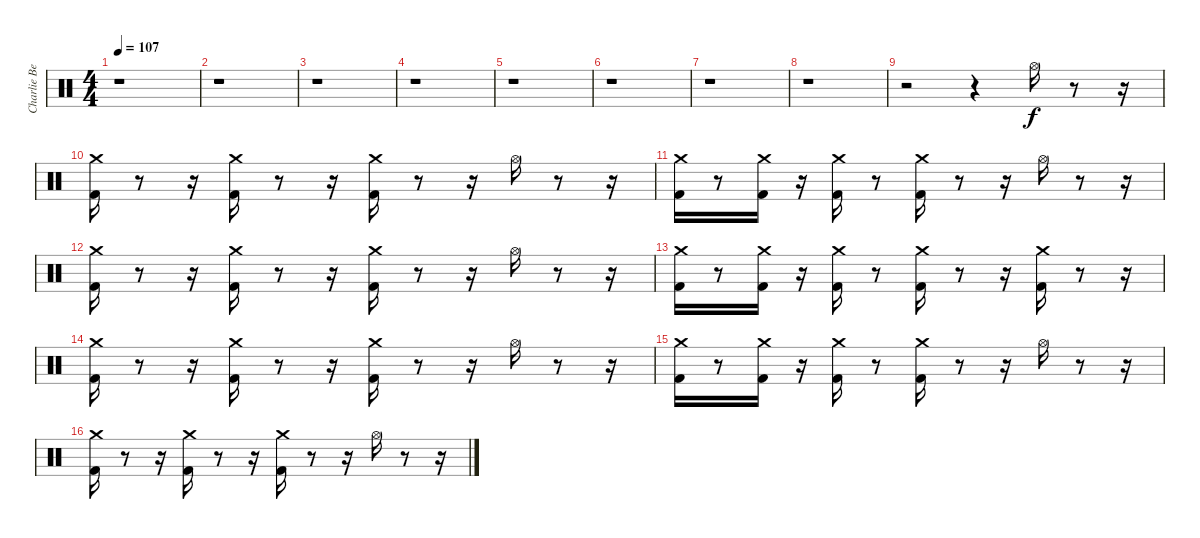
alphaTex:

\track ("Charlie Benante" "Charlie Be") {instrument percussion}
\staff {score}
\articulation defaults
\ts (4 4)
\tempo 107
\clef neutral
\ks c
r.1{dy f} |
r.1 |
r.1 |
r.1 |
r.1 |
r.1 |
r.1 |
r.1 |
r.2 r.4 "Hi-Hat (open)".16 r.8 r.16 |
("Kick (hit) 2" "Crash medium (hit)").16 r.8 r.16 ("Kick (hit) 2" "Crash medium (hit)").16 r.8 r.16 ("Kick (hit) 2" "Crash medium (hit)").16 r.8 r.16 "Hi-Hat (open)".16 r.8 r.16 |
("Kick (hit) 2" "Crash medium (hit)").16 r.8 ("Kick (hit) 2" "Crash medium (hit)").16 r.16 ("Kick (hit) 2" "Crash medium (hit)").16 r.8 ("Kick (hit) 2" "Crash medium (hit)").16 r.8 r.16 "Hi-Hat (open)".16 r.8 r.16 |
("Kick (hit) 2" "Crash medium (hit)").16 r.8 r.16 ("Kick (hit) 2" "Crash medium (hit)").16 r.8 r.16 ("Kick (hit) 2" "Crash medium (hit)").16 r.8 r.16 "Hi-Hat (open)".16 r.8 r.16 |
("Kick (hit) 2" "Crash medium (hit)").16 r.8 ("Kick (hit) 2" "Crash medium (hit)").16 r.16 ("Kick (hit) 2" "Crash medium (hit)").16 r.8 ("Kick (hit) 2" "Crash medium (hit)").16 r.8 r.16 ("Kick (hit) 2" "Crash medium (hit)").16 r.8 r.16 |
("Kick (hit) 2" "Crash medium (hit)").16 r.8 r.16 ("Kick (hit) 2" "Crash medium (hit)").16 r.8 r.16 ("Kick (hit) 2" "Crash medium (hit)").16 r.8 r.16 "Hi-Hat (open)".16 r.8 r.16 |
("Kick (hit) 2" "Crash medium (hit)").16 r.8 ("Kick (hit) 2" "Crash medium (hit)").16 r.16 ("Kick (hit) 2" "Crash medium (hit)").16 r.8 ("Kick (hit) 2" "Crash medium (hit)").16 r.8 r.16 "Hi-Hat (open)".16 r.8 r.16 |
("Kick (hit) 2" "Crash medium (hit)").16 r.8 r.16 ("Kick (hit) 2" "Crash medium (hit)").16 r.8 r.16 ("Kick (hit) 2" "Crash medium (hit)").16 r.8 r.16 "Hi-Hat (open)".16 r.8 r.16
